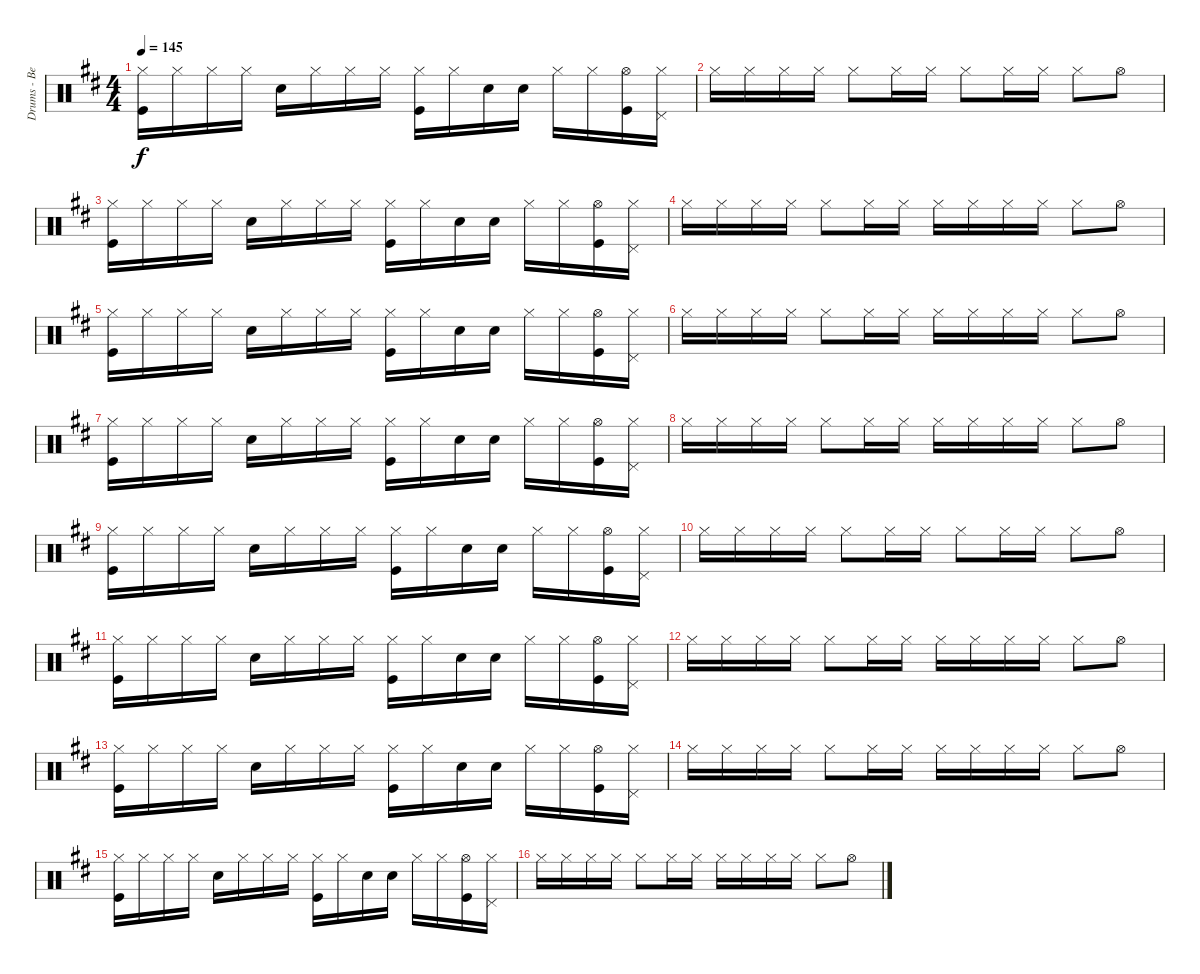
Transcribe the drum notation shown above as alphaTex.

\track ("Drums - Ben Johnston" "Drums - Be") {instrument percussion}
\staff {score}
\articulation defaults
\ts (4 4)
\tempo 145
\clef neutral
\ks d
("Hi-Hat (closed)" "Kick (hit)").16{dy f} "Hi-Hat (closed)".16 "Hi-Hat (closed)".16 "Hi-Hat (closed)".16 "Snare (hit) 2".16 "Hi-Hat (closed)".16 "Hi-Hat (closed)".16 "Hi-Hat (closed)".16 ("Hi-Hat (closed)" "Kick (hit)").16 "Hi-Hat (closed)".16 "Snare (hit) 2".16 "Snare (hit) 2".16 "Hi-Hat (closed)".16 "Hi-Hat (closed)".16 ("Hi-Hat (open)" "Kick (hit)").16 ("Hi-Hat (closed)" "Pedal Hi-Hat (hit)").16 |
"Hi-Hat (closed)".16 "Hi-Hat (closed)".16 "Hi-Hat (closed)".16 "Hi-Hat (closed)".16 "Hi-Hat (closed)".8 "Hi-Hat (closed)".16 "Hi-Hat (closed)".16 "Hi-Hat (closed)".8 "Hi-Hat (closed)".16 "Hi-Hat (closed)".16 "Hi-Hat (closed)".8 "Hi-Hat (open)".8 |
("Hi-Hat (closed)" "Kick (hit)").16 "Hi-Hat (closed)".16 "Hi-Hat (closed)".16 "Hi-Hat (closed)".16 "Snare (hit) 2".16 "Hi-Hat (closed)".16 "Hi-Hat (closed)".16 "Hi-Hat (closed)".16 ("Hi-Hat (closed)" "Kick (hit)").16 "Hi-Hat (closed)".16 "Snare (hit) 2".16 "Snare (hit) 2".16 "Hi-Hat (closed)".16 "Hi-Hat (closed)".16 ("Hi-Hat (open)" "Kick (hit)").16 ("Hi-Hat (closed)" "Pedal Hi-Hat (hit)").16 |
"Hi-Hat (closed)".16 "Hi-Hat (closed)".16 "Hi-Hat (closed)".16 "Hi-Hat (closed)".16 "Hi-Hat (closed)".8 "Hi-Hat (closed)".16 "Hi-Hat (closed)".16 "Hi-Hat (closed)".16 "Hi-Hat (closed)".16 "Hi-Hat (closed)".16 "Hi-Hat (closed)".16 "Hi-Hat (closed)".8 "Hi-Hat (open)".8 |
("Hi-Hat (closed)" "Kick (hit)").16 "Hi-Hat (closed)".16 "Hi-Hat (closed)".16 "Hi-Hat (closed)".16 "Snare (hit) 2".16 "Hi-Hat (closed)".16 "Hi-Hat (closed)".16 "Hi-Hat (closed)".16 ("Hi-Hat (closed)" "Kick (hit)").16 "Hi-Hat (closed)".16 "Snare (hit) 2".16 "Snare (hit) 2".16 "Hi-Hat (closed)".16 "Hi-Hat (closed)".16 ("Hi-Hat (open)" "Kick (hit)").16 ("Hi-Hat (closed)" "Pedal Hi-Hat (hit)").16 |
"Hi-Hat (closed)".16 "Hi-Hat (closed)".16 "Hi-Hat (closed)".16 "Hi-Hat (closed)".16 "Hi-Hat (closed)".8 "Hi-Hat (closed)".16 "Hi-Hat (closed)".16 "Hi-Hat (closed)".16 "Hi-Hat (closed)".16 "Hi-Hat (closed)".16 "Hi-Hat (closed)".16 "Hi-Hat (closed)".8 "Hi-Hat (open)".8 |
("Hi-Hat (closed)" "Kick (hit)").16 "Hi-Hat (closed)".16 "Hi-Hat (closed)".16 "Hi-Hat (closed)".16 "Snare (hit) 2".16 "Hi-Hat (closed)".16 "Hi-Hat (closed)".16 "Hi-Hat (closed)".16 ("Hi-Hat (closed)" "Kick (hit)").16 "Hi-Hat (closed)".16 "Snare (hit) 2".16 "Snare (hit) 2".16 "Hi-Hat (closed)".16 "Hi-Hat (closed)".16 ("Hi-Hat (open)" "Kick (hit)").16 ("Hi-Hat (closed)" "Pedal Hi-Hat (hit)").16 |
"Hi-Hat (closed)".16 "Hi-Hat (closed)".16 "Hi-Hat (closed)".16 "Hi-Hat (closed)".16 "Hi-Hat (closed)".8 "Hi-Hat (closed)".16 "Hi-Hat (closed)".16 "Hi-Hat (closed)".16 "Hi-Hat (closed)".16 "Hi-Hat (closed)".16 "Hi-Hat (closed)".16 "Hi-Hat (closed)".8 "Hi-Hat (open)".8 |
("Hi-Hat (closed)" "Kick (hit)").16 "Hi-Hat (closed)".16 "Hi-Hat (closed)".16 "Hi-Hat (closed)".16 "Snare (hit) 2".16 "Hi-Hat (closed)".16 "Hi-Hat (closed)".16 "Hi-Hat (closed)".16 ("Hi-Hat (closed)" "Kick (hit)").16 "Hi-Hat (closed)".16 "Snare (hit) 2".16 "Snare (hit) 2".16 "Hi-Hat (closed)".16 "Hi-Hat (closed)".16 ("Hi-Hat (open)" "Kick (hit)").16 ("Hi-Hat (closed)" "Pedal Hi-Hat (hit)").16 |
"Hi-Hat (closed)".16 "Hi-Hat (closed)".16 "Hi-Hat (closed)".16 "Hi-Hat (closed)".16 "Hi-Hat (closed)".8 "Hi-Hat (closed)".16 "Hi-Hat (closed)".16 "Hi-Hat (closed)".8 "Hi-Hat (closed)".16 "Hi-Hat (closed)".16 "Hi-Hat (closed)".8 "Hi-Hat (open)".8 |
("Hi-Hat (closed)" "Kick (hit)").16 "Hi-Hat (closed)".16 "Hi-Hat (closed)".16 "Hi-Hat (closed)".16 "Snare (hit) 2".16 "Hi-Hat (closed)".16 "Hi-Hat (closed)".16 "Hi-Hat (closed)".16 ("Hi-Hat (closed)" "Kick (hit)").16 "Hi-Hat (closed)".16 "Snare (hit) 2".16 "Snare (hit) 2".16 "Hi-Hat (closed)".16 "Hi-Hat (closed)".16 ("Hi-Hat (open)" "Kick (hit)").16 ("Hi-Hat (closed)" "Pedal Hi-Hat (hit)").16 |
"Hi-Hat (closed)".16 "Hi-Hat (closed)".16 "Hi-Hat (closed)".16 "Hi-Hat (closed)".16 "Hi-Hat (closed)".8 "Hi-Hat (closed)".16 "Hi-Hat (closed)".16 "Hi-Hat (closed)".16 "Hi-Hat (closed)".16 "Hi-Hat (closed)".16 "Hi-Hat (closed)".16 "Hi-Hat (closed)".8 "Hi-Hat (open)".8 |
("Hi-Hat (closed)" "Kick (hit)").16 "Hi-Hat (closed)".16 "Hi-Hat (closed)".16 "Hi-Hat (closed)".16 "Snare (hit) 2".16 "Hi-Hat (closed)".16 "Hi-Hat (closed)".16 "Hi-Hat (closed)".16 ("Hi-Hat (closed)" "Kick (hit)").16 "Hi-Hat (closed)".16 "Snare (hit) 2".16 "Snare (hit) 2".16 "Hi-Hat (closed)".16 "Hi-Hat (closed)".16 ("Hi-Hat (open)" "Kick (hit)").16 ("Hi-Hat (closed)" "Pedal Hi-Hat (hit)").16 |
"Hi-Hat (closed)".16 "Hi-Hat (closed)".16 "Hi-Hat (closed)".16 "Hi-Hat (closed)".16 "Hi-Hat (closed)".8 "Hi-Hat (closed)".16 "Hi-Hat (closed)".16 "Hi-Hat (closed)".16 "Hi-Hat (closed)".16 "Hi-Hat (closed)".16 "Hi-Hat (closed)".16 "Hi-Hat (closed)".8 "Hi-Hat (open)".8 |
("Hi-Hat (closed)" "Kick (hit)").16 "Hi-Hat (closed)".16 "Hi-Hat (closed)".16 "Hi-Hat (closed)".16 "Snare (hit) 2".16 "Hi-Hat (closed)".16 "Hi-Hat (closed)".16 "Hi-Hat (closed)".16 ("Hi-Hat (closed)" "Kick (hit)").16 "Hi-Hat (closed)".16 "Snare (hit) 2".16 "Snare (hit) 2".16 "Hi-Hat (closed)".16 "Hi-Hat (closed)".16 ("Hi-Hat (open)" "Kick (hit)").16 ("Hi-Hat (closed)" "Pedal Hi-Hat (hit)").16 |
"Hi-Hat (closed)".16 "Hi-Hat (closed)".16 "Hi-Hat (closed)".16 "Hi-Hat (closed)".16 "Hi-Hat (closed)".8 "Hi-Hat (closed)".16 "Hi-Hat (closed)".16 "Hi-Hat (closed)".16 "Hi-Hat (closed)".16 "Hi-Hat (closed)".16 "Hi-Hat (closed)".16 "Hi-Hat (closed)".8 "Hi-Hat (open)".8
